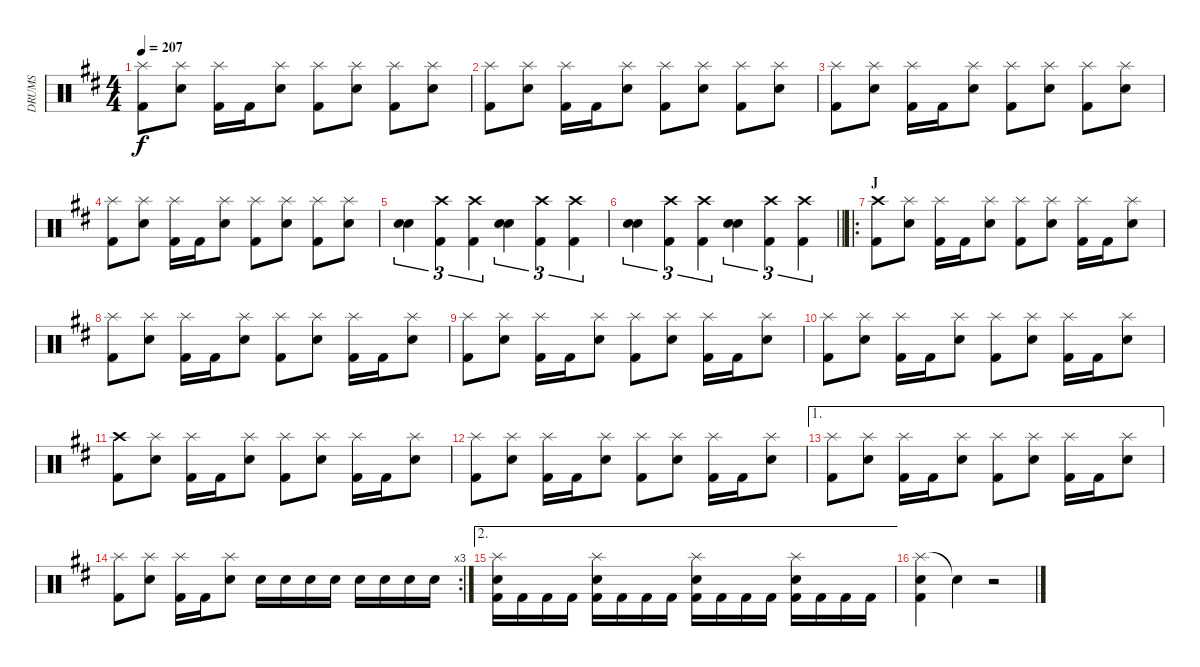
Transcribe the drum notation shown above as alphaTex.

\track ("DRUMS" "DRUMS") {instrument percussion}
\staff {score}
\articulation defaults
\ts (4 4)
\tempo 207
\clef neutral
\ks d
("Splash (hit)" "Kick (hit) 2").8{dy f} ("Splash (hit)" "Snare (hit) 2").8 ("Splash (hit)" "Kick (hit) 2").16 "Kick (hit) 2".16 ("Splash (hit)" "Snare (hit) 2").8 ("Splash (hit)" "Kick (hit) 2").8 ("Splash (hit)" "Snare (hit) 2").8 ("Splash (hit)" "Kick (hit) 2").8 ("Splash (hit)" "Snare (hit) 2").8 |
("Splash (hit)" "Kick (hit) 2").8 ("Splash (hit)" "Snare (hit) 2").8 ("Splash (hit)" "Kick (hit) 2").16 "Kick (hit) 2".16 ("Splash (hit)" "Snare (hit) 2").8 ("Splash (hit)" "Kick (hit) 2").8 ("Splash (hit)" "Snare (hit) 2").8 ("Splash (hit)" "Kick (hit) 2").8 ("Splash (hit)" "Snare (hit) 2").8 |
("Splash (hit)" "Kick (hit) 2").8 ("Splash (hit)" "Snare (hit) 2").8 ("Splash (hit)" "Kick (hit) 2").16 "Kick (hit) 2".16 ("Splash (hit)" "Snare (hit) 2").8 ("Splash (hit)" "Kick (hit) 2").8 ("Splash (hit)" "Snare (hit) 2").8 ("Splash (hit)" "Kick (hit) 2").8 ("Splash (hit)" "Snare (hit) 2").8 |
("Splash (hit)" "Kick (hit) 2").8 ("Splash (hit)" "Snare (hit) 2").8 ("Splash (hit)" "Kick (hit) 2").16 "Kick (hit) 2".16 ("Splash (hit)" "Snare (hit) 2").8 ("Splash (hit)" "Kick (hit) 2").8 ("Splash (hit)" "Snare (hit) 2").8 ("Splash (hit)" "Kick (hit) 2").8 ("Splash (hit)" "Snare (hit) 2").8 |
("Snare (hit) 2" "Snare (hit) 2").4{tu (3 2)} ("Crash high (hit)" "Kick (hit) 2").4{tu (3 2)} ("Crash high (hit)" "Kick (hit) 2").4{tu (3 2)} ("Snare (hit) 2" "Snare (hit) 2").4{tu (3 2)} ("Crash high (hit)" "Kick (hit) 2").4{tu (3 2)} ("Crash high (hit)" "Kick (hit) 2").4{tu (3 2)} |
\barLineRight lightlight
("Snare (hit) 2" "Snare (hit) 2").4{tu (3 2)} ("Crash high (hit)" "Kick (hit) 2").4{tu (3 2)} ("Crash high (hit)" "Kick (hit) 2").4{tu (3 2)} ("Snare (hit) 2" "Snare (hit) 2").4{tu (3 2)} ("Crash high (hit)" "Kick (hit) 2").4{tu (3 2)} ("Crash high (hit)" "Kick (hit) 2").4{tu (3 2)} |
\ro
\section ("" "J")
("Crash high (hit)" "Kick (hit) 2").8 ("Splash (hit)" "Snare (hit) 2").8 ("Splash (hit)" "Kick (hit) 2").16 "Kick (hit) 2".16 ("Splash (hit)" "Snare (hit) 2").8 ("Splash (hit)" "Kick (hit) 2").8 ("Splash (hit)" "Snare (hit) 2").8 ("Splash (hit)" "Kick (hit) 2").16 "Kick (hit) 2".16 ("Splash (hit)" "Snare (hit) 2").8 |
("Splash (hit)" "Kick (hit) 2").8 ("Splash (hit)" "Snare (hit) 2").8 ("Splash (hit)" "Kick (hit) 2").16 "Kick (hit) 2".16 ("Splash (hit)" "Snare (hit) 2").8 ("Splash (hit)" "Kick (hit) 2").8 ("Splash (hit)" "Snare (hit) 2").8 ("Splash (hit)" "Kick (hit) 2").16 "Kick (hit) 2".16 ("Splash (hit)" "Snare (hit) 2").8 |
("Splash (hit)" "Kick (hit) 2").8 ("Splash (hit)" "Snare (hit) 2").8 ("Splash (hit)" "Kick (hit) 2").16 "Kick (hit) 2".16 ("Splash (hit)" "Snare (hit) 2").8 ("Splash (hit)" "Kick (hit) 2").8 ("Splash (hit)" "Snare (hit) 2").8 ("Splash (hit)" "Kick (hit) 2").16 "Kick (hit) 2".16 ("Splash (hit)" "Snare (hit) 2").8 |
("Splash (hit)" "Kick (hit) 2").8 ("Splash (hit)" "Snare (hit) 2").8 ("Splash (hit)" "Kick (hit) 2").16 "Kick (hit) 2".16 ("Splash (hit)" "Snare (hit) 2").8 ("Splash (hit)" "Kick (hit) 2").8 ("Splash (hit)" "Snare (hit) 2").8 ("Splash (hit)" "Kick (hit) 2").16 "Kick (hit) 2".16 ("Splash (hit)" "Snare (hit) 2").8 |
("Crash high (hit)" "Kick (hit) 2").8 ("Splash (hit)" "Snare (hit) 2").8 ("Splash (hit)" "Kick (hit) 2").16 "Kick (hit) 2".16 ("Splash (hit)" "Snare (hit) 2").8 ("Splash (hit)" "Kick (hit) 2").8 ("Splash (hit)" "Snare (hit) 2").8 ("Splash (hit)" "Kick (hit) 2").16 "Kick (hit) 2".16 ("Splash (hit)" "Snare (hit) 2").8 |
("Splash (hit)" "Kick (hit) 2").8 ("Splash (hit)" "Snare (hit) 2").8 ("Splash (hit)" "Kick (hit) 2").16 "Kick (hit) 2".16 ("Splash (hit)" "Snare (hit) 2").8 ("Splash (hit)" "Kick (hit) 2").8 ("Splash (hit)" "Snare (hit) 2").8 ("Splash (hit)" "Kick (hit) 2").16 "Kick (hit) 2".16 ("Splash (hit)" "Snare (hit) 2").8 |
\ae 1
("Splash (hit)" "Kick (hit) 2").8 ("Splash (hit)" "Snare (hit) 2").8 ("Splash (hit)" "Kick (hit) 2").16 "Kick (hit) 2".16 ("Splash (hit)" "Snare (hit) 2").8 ("Splash (hit)" "Kick (hit) 2").8 ("Splash (hit)" "Snare (hit) 2").8 ("Splash (hit)" "Kick (hit) 2").16 "Kick (hit) 2".16 ("Splash (hit)" "Snare (hit) 2").8 |
\rc 3
("Splash (hit)" "Kick (hit) 2").8 ("Splash (hit)" "Snare (hit) 2").8 ("Splash (hit)" "Kick (hit) 2").16 "Kick (hit) 2".16 ("Splash (hit)" "Snare (hit) 2").8 "Snare (hit) 2".16 "Snare (hit) 2".16 "Snare (hit) 2".16 "Snare (hit) 2".16 "Snare (hit) 2".16 "Snare (hit) 2".16 "Snare (hit) 2".16 "Snare (hit) 2".16 |
\ae 2
("Splash (hit)" "Snare (hit) 2" "Kick (hit) 2").16 "Kick (hit) 2".16 "Kick (hit) 2".16 "Kick (hit) 2".16 ("Splash (hit)" "Snare (hit) 2" "Kick (hit) 2").16 "Kick (hit) 2".16 "Kick (hit) 2".16 "Kick (hit) 2".16 ("Splash (hit)" "Snare (hit) 2" "Kick (hit) 2").16 "Kick (hit) 2".16 "Kick (hit) 2".16 "Kick (hit) 2".16 ("Splash (hit)" "Snare (hit) 2" "Kick (hit) 2").16 "Kick (hit) 2".16 "Kick (hit) 2".16 "Kick (hit) 2".16 |
("Splash (hit)" "Snare (hit) 2" "Kick (hit) 2").4 "Snare (hit)"{t}.4 r.2
